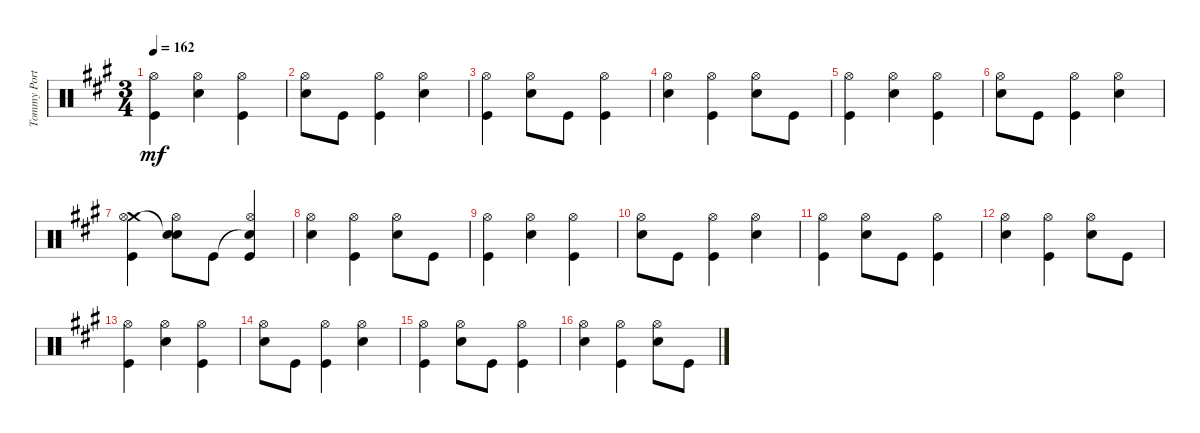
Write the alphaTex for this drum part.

\track ("Tommy Portimo (Drums)" "Tommy Port") {instrument percussion}
\staff {score}
\articulation defaults
\ts (3 4)
\tempo 162
\clef neutral
\ks a
("Kick (hit)" "Hi-Hat (open)").4{dy mf} ("Electric Snare (hit)" "Hi-Hat (open)").4 ("Kick (hit)" "Hi-Hat (open)").4 |
("Electric Snare (hit)" "Hi-Hat (open)").8 "Kick (hit)".8 ("Kick (hit)" "Hi-Hat (open)").4 ("Electric Snare (hit)" "Hi-Hat (open)").4 |
("Kick (hit)" "Hi-Hat (open)").4 ("Electric Snare (hit)" "Hi-Hat (open)").8 "Kick (hit)".8 ("Kick (hit)" "Hi-Hat (open)").4 |
("Electric Snare (hit)" "Hi-Hat (open)").4 ("Kick (hit)" "Hi-Hat (open)").4 ("Electric Snare (hit)" "Hi-Hat (open)").8 "Kick (hit)".8 |
("Kick (hit)" "Hi-Hat (open)").4 ("Electric Snare (hit)" "Hi-Hat (open)").4 ("Kick (hit)" "Hi-Hat (open)").4 |
("Electric Snare (hit)" "Hi-Hat (open)").8 "Kick (hit)".8 ("Kick (hit)" "Hi-Hat (open)").4 ("Electric Snare (hit)" "Hi-Hat (open)").4 |
("Crash medium (hit)" "Kick (hit)" "Hi-Hat (open)").4 ("Snare (hit)"{t} "Electric Snare (hit)" "Hi-Hat (open)").8 "Kick (hit)".8 ("Snare (hit)"{t} "Kick (hit)" "Hi-Hat (open)").4 |
("Electric Snare (hit)" "Hi-Hat (open)").4 ("Kick (hit)" "Hi-Hat (open)").4 ("Electric Snare (hit)" "Hi-Hat (open)").8 "Kick (hit)".8 |
("Kick (hit)" "Hi-Hat (open)").4 ("Electric Snare (hit)" "Hi-Hat (open)").4 ("Kick (hit)" "Hi-Hat (open)").4 |
("Electric Snare (hit)" "Hi-Hat (open)").8 "Kick (hit)".8 ("Kick (hit)" "Hi-Hat (open)").4 ("Electric Snare (hit)" "Hi-Hat (open)").4 |
("Kick (hit)" "Hi-Hat (open)").4 ("Electric Snare (hit)" "Hi-Hat (open)").8 "Kick (hit)".8 ("Kick (hit)" "Hi-Hat (open)").4 |
("Electric Snare (hit)" "Hi-Hat (open)").4 ("Kick (hit)" "Hi-Hat (open)").4 ("Electric Snare (hit)" "Hi-Hat (open)").8 "Kick (hit)".8 |
("Kick (hit)" "Hi-Hat (open)").4 ("Electric Snare (hit)" "Hi-Hat (open)").4 ("Kick (hit)" "Hi-Hat (open)").4 |
("Electric Snare (hit)" "Hi-Hat (open)").8 "Kick (hit)".8 ("Kick (hit)" "Hi-Hat (open)").4 ("Electric Snare (hit)" "Hi-Hat (open)").4 |
("Kick (hit)" "Hi-Hat (open)").4 ("Electric Snare (hit)" "Hi-Hat (open)").8 "Kick (hit)".8 ("Kick (hit)" "Hi-Hat (open)").4 |
("Electric Snare (hit)" "Hi-Hat (open)").4 ("Kick (hit)" "Hi-Hat (open)").4 ("Electric Snare (hit)" "Hi-Hat (open)").8 "Kick (hit)".8
